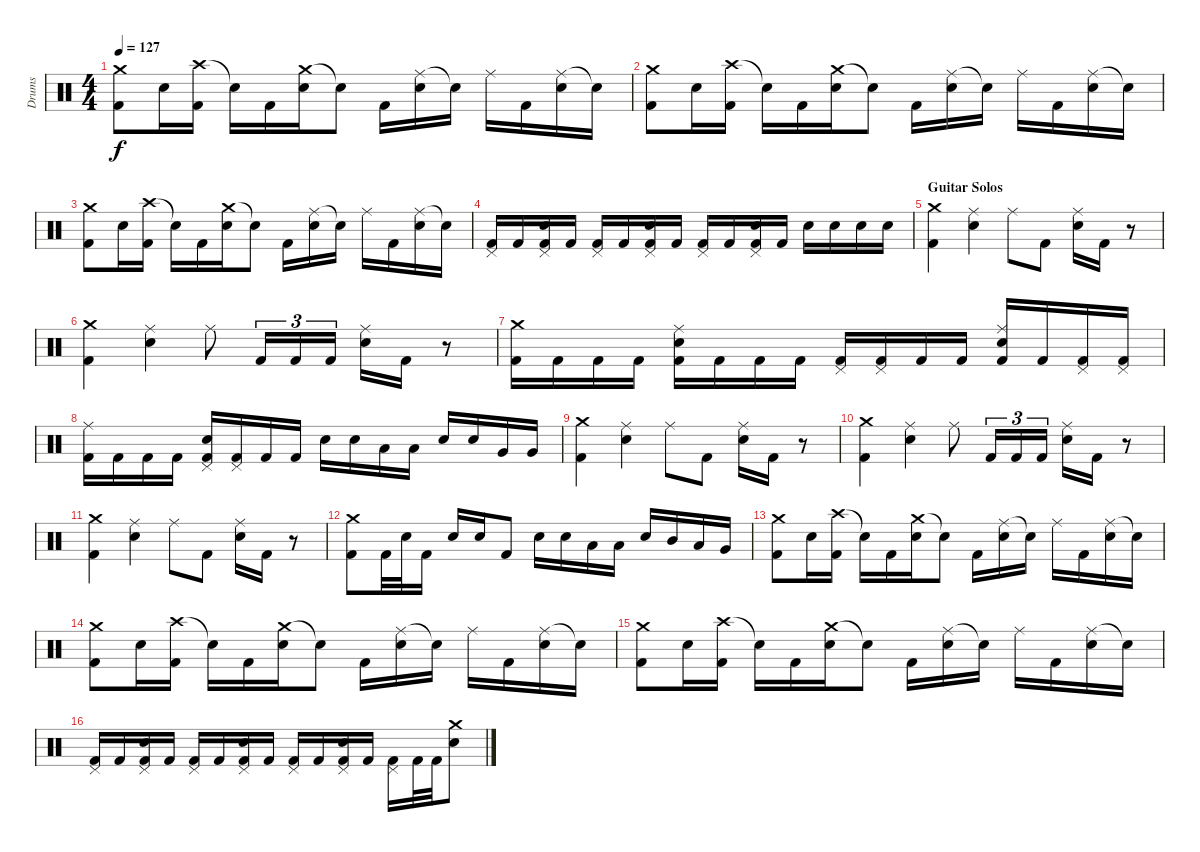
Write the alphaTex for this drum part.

\track ("Drums" "Drums") {instrument percussion}
\staff {score}
\articulation defaults
\ts (4 4)
\tempo 127
\clef neutral
\ks c
("Crash medium (hit)" "Kick (hit) 2").8{dy f} "Electric Snare (hit)".16 ("Crash high (hit)" "Kick (hit) 2").16 "Snare (hit)"{t}.16 "Kick (hit) 2".16 ("Crash medium (hit)" "Electric Snare (hit)").16 "Snare (hit)"{t}.8 "Kick (hit) 2".16 ("Ride (middle)" "Electric Snare (hit)").16 "Snare (hit)"{t}.16 "Ride (middle)".16 "Kick (hit) 2".16 ("Ride (middle)" "Electric Snare (hit)").16 "Snare (hit)"{t}.16 |
("Crash medium (hit)" "Kick (hit) 2").8 "Electric Snare (hit)".16 ("Crash high (hit)" "Kick (hit) 2").16 "Snare (hit)"{t}.16 "Kick (hit) 2".16 ("Crash medium (hit)" "Electric Snare (hit)").16 "Snare (hit)"{t}.8 "Kick (hit) 2".16 ("Ride (middle)" "Electric Snare (hit)").16 "Snare (hit)"{t}.16 "Ride (middle)".16 "Kick (hit) 2".16 ("Ride (middle)" "Electric Snare (hit)").16 "Snare (hit)"{t}.16 |
("Crash medium (hit)" "Kick (hit) 2").8 "Electric Snare (hit)".16 ("Crash high (hit)" "Kick (hit) 2").16 "Snare (hit)"{t}.16 "Kick (hit) 2".16 ("Crash medium (hit)" "Electric Snare (hit)").16 "Snare (hit)"{t}.8 "Kick (hit) 2".16 ("Ride (middle)" "Electric Snare (hit)").16 "Snare (hit)"{t}.16 "Ride (middle)".16 "Kick (hit) 2".16 ("Ride (middle)" "Electric Snare (hit)").16 "Snare (hit)"{t}.16 |
("Pedal Hi-Hat (hit)" "Kick (hit) 2").16 "Kick (hit) 2".16 ("Pedal Hi-Hat (hit)" "Electric Snare (hit)" "Kick (hit) 2").16 "Kick (hit) 2".16 ("Pedal Hi-Hat (hit)" "Kick (hit) 2").16 "Kick (hit) 2".16 ("Pedal Hi-Hat (hit)" "Electric Snare (hit)" "Kick (hit) 2").16 "Kick (hit) 2".16 ("Pedal Hi-Hat (hit)" "Kick (hit) 2").16 "Kick (hit) 2".16 ("Pedal Hi-Hat (hit)" "Electric Snare (hit)" "Kick (hit) 2").16 "Kick (hit) 2".16 "Electric Snare (hit)".16 "Electric Snare (hit)".16 "Electric Snare (hit)".16 "Electric Snare (hit)".16 |
\section ("" "Guitar Solos")
("Crash medium (hit)" "Kick (hit) 2").4 ("Ride (middle)" "Electric Snare (hit)").4 "Ride (middle)".8 "Kick (hit) 2".8 ("Ride (middle)" "Electric Snare (hit)").16 "Kick (hit) 2".16 r.8 |
("Crash medium (hit)" "Kick (hit) 2").4 ("Ride (middle)" "Electric Snare (hit)").4 "Ride (middle)".8 "Kick (hit) 2".16{tu (3 2)} "Kick (hit) 2".16{tu (3 2)} "Kick (hit) 2".16{tu (3 2)} ("Ride (middle)" "Electric Snare (hit)").16 "Kick (hit) 2".16 r.8 |
("Crash medium (hit)" "Kick (hit) 2").16 "Kick (hit) 2".16 "Kick (hit) 2".16 "Kick (hit) 2".16 ("Ride (middle)" "Electric Snare (hit)" "Kick (hit) 2").16 "Kick (hit) 2".16 "Kick (hit) 2".16 "Kick (hit) 2".16 ("Pedal Hi-Hat (hit)" "Kick (hit) 2").16 ("Pedal Hi-Hat (hit)" "Kick (hit) 2").16 "Kick (hit) 2".16 "Kick (hit) 2".16 ("Ride (middle)" "Electric Snare (hit)" "Kick (hit) 2").16 "Kick (hit) 2".16 ("Pedal Hi-Hat (hit)" "Kick (hit) 2").16 ("Pedal Hi-Hat (hit)" "Kick (hit) 2").16 |
("Ride (middle)" "Kick (hit) 2").16 "Kick (hit) 2".16 "Kick (hit) 2".16 "Kick (hit) 2".16 ("Pedal Hi-Hat (hit)" "Electric Snare (hit)" "Kick (hit) 2").16 ("Pedal Hi-Hat (hit)" "Kick (hit) 2").16 "Kick (hit) 2".16 "Kick (hit) 2".16 "Electric Snare (hit)".16 "Electric Snare (hit)".16 "Low Tom (hit)".16 "Low Tom (hit)".16 "Electric Snare (hit)".16 "Electric Snare (hit)".16 "Very Low Tom (hit)".16 "Very Low Tom (hit)".16 |
("Crash medium (hit)" "Kick (hit) 2").4 ("Ride (middle)" "Electric Snare (hit)").4 "Ride (middle)".8 "Kick (hit) 2".8 ("Ride (middle)" "Electric Snare (hit)").16 "Kick (hit) 2".16 r.8 |
("Crash medium (hit)" "Kick (hit) 2").4 ("Ride (middle)" "Electric Snare (hit)").4 "Ride (middle)".8 "Kick (hit) 2".16{tu (3 2)} "Kick (hit) 2".16{tu (3 2)} "Kick (hit) 2".16{tu (3 2)} ("Ride (middle)" "Electric Snare (hit)").16 "Kick (hit) 2".16 r.8 |
("Crash medium (hit)" "Kick (hit) 2").4 ("Ride (middle)" "Electric Snare (hit)").4 "Ride (middle)".8 "Kick (hit) 2".8 ("Ride (middle)" "Electric Snare (hit)").16 "Kick (hit) 2".16 r.8 |
("Crash medium (hit)" "Kick (hit) 2").8 "Kick (hit) 2".32 "Electric Snare (hit)".32 "Kick (hit) 2".16 "Electric Snare (hit)".16 "Electric Snare (hit)".16 "Kick (hit) 2".8 "Electric Snare (hit)".16 "Electric Snare (hit)".16 "Low Tom (hit)".16 "Low Tom (hit)".16 "Electric Snare (hit)".16 "Mid Tom (hit)".16 "Low Tom (hit)".16 "Very Low Tom (hit)".16 |
("Crash medium (hit)" "Kick (hit) 2").8 "Electric Snare (hit)".16 ("Crash high (hit)" "Kick (hit) 2").16 "Snare (hit)"{t}.16 "Kick (hit) 2".16 ("Crash medium (hit)" "Electric Snare (hit)").16 "Snare (hit)"{t}.8 "Kick (hit) 2".16 ("Ride (middle)" "Electric Snare (hit)").16 "Snare (hit)"{t}.16 "Ride (middle)".16 "Kick (hit) 2".16 ("Ride (middle)" "Electric Snare (hit)").16 "Snare (hit)"{t}.16 |
("Crash medium (hit)" "Kick (hit) 2").8 "Electric Snare (hit)".16 ("Crash high (hit)" "Kick (hit) 2").16 "Snare (hit)"{t}.16 "Kick (hit) 2".16 ("Crash medium (hit)" "Electric Snare (hit)").16 "Snare (hit)"{t}.8 "Kick (hit) 2".16 ("Ride (middle)" "Electric Snare (hit)").16 "Snare (hit)"{t}.16 "Ride (middle)".16 "Kick (hit) 2".16 ("Ride (middle)" "Electric Snare (hit)").16 "Snare (hit)"{t}.16 |
("Crash medium (hit)" "Kick (hit) 2").8 "Electric Snare (hit)".16 ("Crash high (hit)" "Kick (hit) 2").16 "Snare (hit)"{t}.16 "Kick (hit) 2".16 ("Crash medium (hit)" "Electric Snare (hit)").16 "Snare (hit)"{t}.8 "Kick (hit) 2".16 ("Ride (middle)" "Electric Snare (hit)").16 "Snare (hit)"{t}.16 "Ride (middle)".16 "Kick (hit) 2".16 ("Ride (middle)" "Electric Snare (hit)").16 "Snare (hit)"{t}.16 |
("Pedal Hi-Hat (hit)" "Kick (hit) 2").16 "Kick (hit) 2".16 ("Pedal Hi-Hat (hit)" "Electric Snare (hit)" "Kick (hit) 2").16 "Kick (hit) 2".16 ("Pedal Hi-Hat (hit)" "Kick (hit) 2").16 "Kick (hit) 2".16 ("Pedal Hi-Hat (hit)" "Electric Snare (hit)" "Kick (hit) 2").16 "Kick (hit) 2".16 ("Pedal Hi-Hat (hit)" "Kick (hit) 2").16 "Kick (hit) 2".16 ("Pedal Hi-Hat (hit)" "Electric Snare (hit)" "Kick (hit) 2").16 "Kick (hit) 2".16 ("Pedal Hi-Hat (hit)" "Kick (hit) 2").16 "Kick (hit) 2".32 "Kick (hit) 2".32 ("Crash medium (hit)" "Electric Snare (hit)").8
